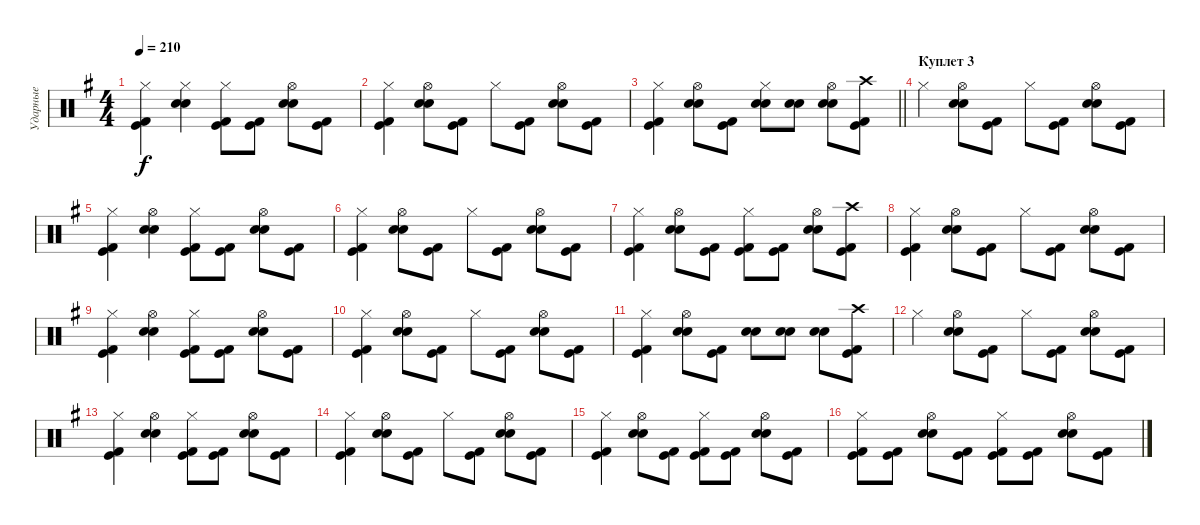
\track ("Ударные" "Ударные") {instrument percussion}
\staff {score}
\articulation defaults
\ts (4 4)
\tempo 210
\clef neutral
\ks g
("Hi-Hat (closed)" "Kick (hit) 2" "Kick (hit)").4{dy f} ("Hi-Hat (closed)" "Electric Snare (hit)" "Snare (hit) 2").4 ("Hi-Hat (closed)" "Kick (hit) 2" "Kick (hit)").8 ("Kick (hit) 2" "Kick (hit)").8 ("Hi-Hat (open)" "Electric Snare (hit)" "Snare (hit) 2").8 ("Kick (hit) 2" "Kick (hit)").8 |
("Hi-Hat (closed)" "Kick (hit) 2" "Kick (hit)").4 ("Hi-Hat (open)" "Electric Snare (hit)" "Snare (hit) 2").8 ("Kick (hit) 2" "Kick (hit)").8 "Hi-Hat (closed)".8 ("Kick (hit) 2" "Kick (hit)").8 ("Hi-Hat (open)" "Electric Snare (hit)" "Snare (hit) 2").8 ("Kick (hit) 2" "Kick (hit)").8 |
\barLineRight lightlight
("Hi-Hat (closed)" "Kick (hit) 2" "Kick (hit)").4 ("Hi-Hat (open)" "Electric Snare (hit)" "Snare (hit) 2").8 ("Kick (hit) 2" "Kick (hit)").8 ("Hi-Hat (closed)" "Electric Snare (hit)" "Snare (hit) 2").8 ("Electric Snare (hit)" "Snare (hit) 2").8 ("Hi-Hat (open)" "Electric Snare (hit)" "Snare (hit) 2").8 ("Crash high (hit)" "Kick (hit) 2" "Kick (hit)").8 |
\section ("" "Куплет 3")
"Hi-Hat (closed)".4 ("Hi-Hat (open)" "Electric Snare (hit)" "Snare (hit) 2").8 ("Kick (hit) 2" "Kick (hit)").8 "Hi-Hat (closed)".8 ("Kick (hit) 2" "Kick (hit)").8 ("Hi-Hat (open)" "Electric Snare (hit)" "Snare (hit) 2").8 ("Kick (hit) 2" "Kick (hit)").8 |
("Hi-Hat (closed)" "Kick (hit) 2" "Kick (hit)").4 ("Hi-Hat (open)" "Electric Snare (hit)" "Snare (hit) 2").4 ("Hi-Hat (closed)" "Kick (hit) 2" "Kick (hit)").8 ("Kick (hit) 2" "Kick (hit)").8 ("Hi-Hat (open)" "Electric Snare (hit)" "Snare (hit) 2").8 ("Kick (hit) 2" "Kick (hit)").8 |
("Hi-Hat (closed)" "Kick (hit) 2" "Kick (hit)").4 ("Hi-Hat (open)" "Electric Snare (hit)" "Snare (hit) 2").8 ("Kick (hit) 2" "Kick (hit)").8 "Hi-Hat (closed)".8 ("Kick (hit) 2" "Kick (hit)").8 ("Hi-Hat (open)" "Electric Snare (hit)" "Snare (hit) 2").8 ("Kick (hit) 2" "Kick (hit)").8 |
("Hi-Hat (closed)" "Kick (hit) 2" "Kick (hit)").4 ("Hi-Hat (open)" "Electric Snare (hit)" "Snare (hit) 2").8 ("Kick (hit) 2" "Kick (hit)").8 ("Hi-Hat (closed)" "Kick (hit) 2" "Kick (hit)").8 ("Kick (hit) 2" "Kick (hit)").8 ("Hi-Hat (open)" "Electric Snare (hit)" "Snare (hit) 2").8 ("Crash high (hit)" "Kick (hit) 2" "Kick (hit)").8 |
("Hi-Hat (closed)" "Kick (hit) 2" "Kick (hit)").4 ("Hi-Hat (open)" "Electric Snare (hit)" "Snare (hit) 2").8 ("Kick (hit) 2" "Kick (hit)").8 "Hi-Hat (closed)".8 ("Kick (hit) 2" "Kick (hit)").8 ("Hi-Hat (open)" "Electric Snare (hit)" "Snare (hit) 2").8 ("Kick (hit) 2" "Kick (hit)").8 |
("Hi-Hat (closed)" "Kick (hit) 2" "Kick (hit)").4 ("Hi-Hat (open)" "Electric Snare (hit)" "Snare (hit) 2").4 ("Hi-Hat (closed)" "Kick (hit) 2" "Kick (hit)").8 ("Kick (hit) 2" "Kick (hit)").8 ("Hi-Hat (open)" "Electric Snare (hit)" "Snare (hit) 2").8 ("Kick (hit) 2" "Kick (hit)").8 |
("Hi-Hat (closed)" "Kick (hit) 2" "Kick (hit)").4 ("Hi-Hat (open)" "Electric Snare (hit)" "Snare (hit) 2").8 ("Kick (hit) 2" "Kick (hit)").8 "Hi-Hat (closed)".8 ("Kick (hit) 2" "Kick (hit)").8 ("Hi-Hat (open)" "Electric Snare (hit)" "Snare (hit) 2").8 ("Kick (hit) 2" "Kick (hit)").8 |
("Hi-Hat (closed)" "Kick (hit) 2" "Kick (hit)").4 ("Hi-Hat (open)" "Electric Snare (hit)" "Snare (hit) 2").8 ("Kick (hit) 2" "Kick (hit)").8 ("Electric Snare (hit)" "Snare (hit) 2").8 ("Electric Snare (hit)" "Snare (hit) 2").8 ("Electric Snare (hit)" "Snare (hit) 2").8 ("Crash high (hit)" "Kick (hit) 2" "Kick (hit)").8 |
"Hi-Hat (closed)".4 ("Hi-Hat (open)" "Electric Snare (hit)" "Snare (hit) 2").8 ("Kick (hit) 2" "Kick (hit)").8 "Hi-Hat (closed)".8 ("Kick (hit) 2" "Kick (hit)").8 ("Hi-Hat (open)" "Electric Snare (hit)" "Snare (hit) 2").8 ("Kick (hit) 2" "Kick (hit)").8 |
("Hi-Hat (closed)" "Kick (hit) 2" "Kick (hit)").4 ("Hi-Hat (open)" "Electric Snare (hit)" "Snare (hit) 2").4 ("Hi-Hat (closed)" "Kick (hit) 2" "Kick (hit)").8 ("Kick (hit) 2" "Kick (hit)").8 ("Hi-Hat (open)" "Electric Snare (hit)" "Snare (hit) 2").8 ("Kick (hit) 2" "Kick (hit)").8 |
("Hi-Hat (closed)" "Kick (hit) 2" "Kick (hit)").4 ("Hi-Hat (open)" "Electric Snare (hit)" "Snare (hit) 2").8 ("Kick (hit) 2" "Kick (hit)").8 "Hi-Hat (closed)".8 ("Kick (hit) 2" "Kick (hit)").8 ("Hi-Hat (open)" "Electric Snare (hit)" "Snare (hit) 2").8 ("Kick (hit) 2" "Kick (hit)").8 |
("Hi-Hat (closed)" "Kick (hit) 2" "Kick (hit)").4 ("Hi-Hat (open)" "Electric Snare (hit)" "Snare (hit) 2").8 ("Kick (hit) 2" "Kick (hit)").8 ("Hi-Hat (closed)" "Kick (hit) 2" "Kick (hit)").8 ("Kick (hit) 2" "Kick (hit)").8 ("Hi-Hat (open)" "Electric Snare (hit)" "Snare (hit) 2").8 ("Kick (hit) 2" "Kick (hit)").8 |
("Hi-Hat (closed)" "Kick (hit) 2" "Kick (hit)").8 ("Kick (hit) 2" "Kick (hit)").8 ("Hi-Hat (open)" "Electric Snare (hit)" "Snare (hit) 2").8 ("Kick (hit) 2" "Kick (hit)").8 ("Hi-Hat (closed)" "Kick (hit) 2" "Kick (hit)").8 ("Kick (hit) 2" "Kick (hit)").8 ("Hi-Hat (open)" "Electric Snare (hit)" "Snare (hit) 2").8 ("Kick (hit) 2" "Kick (hit)").8
